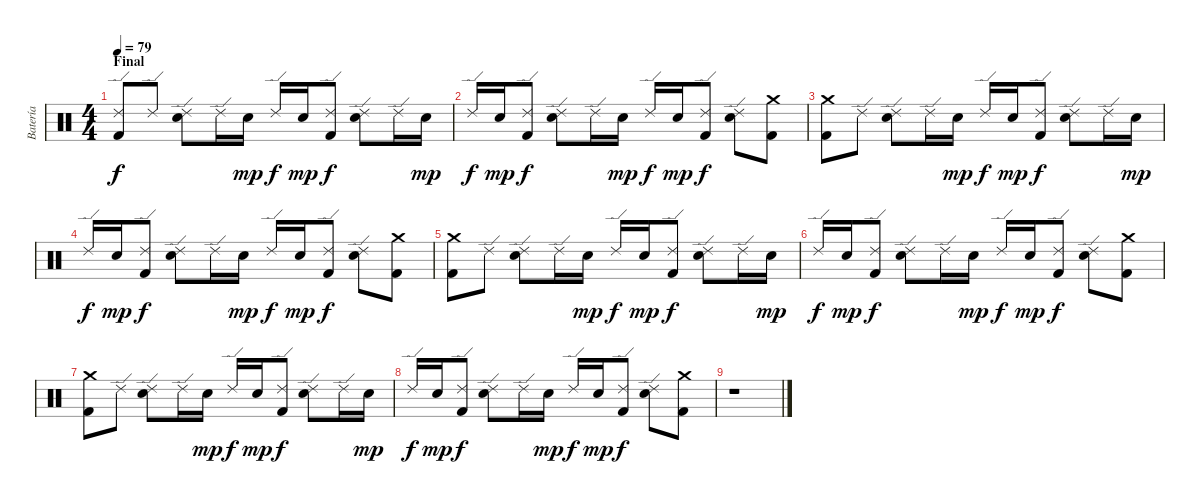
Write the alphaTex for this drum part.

\track ("Batería" "Batería") {instrument percussion}
\staff {score}
\articulation defaults
\ts (4 4)
\section ("" "Final")
\tempo 79
\clef neutral
\ks c
("Ride (edge) 2" "Kick (hit) 2").8{dy f} "Ride (edge) 2".8 ("Ride (edge) 2" "Snare (hit) 2").8 "Ride (edge) 2".16 "Snare (hit) 2".16{dy mp} "Ride (edge) 2".16{dy f} "Snare (hit) 2".16{dy mp} ("Ride (edge) 2" "Kick (hit) 2").8{dy f} ("Ride (edge) 2" "Snare (hit) 2").8 "Ride (edge) 2".16 "Snare (hit) 2".16{dy mp} |
"Ride (edge) 2".16{dy f} "Snare (hit) 2".16{dy mp} ("Ride (edge) 2" "Kick (hit) 2").8{dy f} ("Ride (edge) 2" "Snare (hit) 2").8 "Ride (edge) 2".16 "Snare (hit) 2".16{dy mp} "Ride (edge) 2".16{dy f} "Snare (hit) 2".16{dy mp} ("Ride (edge) 2" "Kick (hit) 2").8{dy f} ("Ride (edge) 2" "Snare (hit) 2").8 ("Crash medium (hit)" "Kick (hit) 2").8 |
("Crash medium (hit)" "Kick (hit) 2").8 "Ride (edge) 2".8 ("Ride (edge) 2" "Snare (hit) 2").8 "Ride (edge) 2".16 "Snare (hit) 2".16{dy mp} "Ride (edge) 2".16{dy f} "Snare (hit) 2".16{dy mp} ("Ride (edge) 2" "Kick (hit) 2").8{dy f} ("Ride (edge) 2" "Snare (hit) 2").8 "Ride (edge) 2".16 "Snare (hit) 2".16{dy mp} |
"Ride (edge) 2".16{dy f} "Snare (hit) 2".16{dy mp} ("Ride (edge) 2" "Kick (hit) 2").8{dy f} ("Ride (edge) 2" "Snare (hit) 2").8 "Ride (edge) 2".16 "Snare (hit) 2".16{dy mp} "Ride (edge) 2".16{dy f} "Snare (hit) 2".16{dy mp} ("Ride (edge) 2" "Kick (hit) 2").8{dy f} ("Ride (edge) 2" "Snare (hit) 2").8 ("Crash medium (hit)" "Kick (hit) 2").8 |
("Crash medium (hit)" "Kick (hit) 2").8 "Ride (edge) 2".8 ("Ride (edge) 2" "Snare (hit) 2").8 "Ride (edge) 2".16 "Snare (hit) 2".16{dy mp} "Ride (edge) 2".16{dy f} "Snare (hit) 2".16{dy mp} ("Ride (edge) 2" "Kick (hit) 2").8{dy f} ("Ride (edge) 2" "Snare (hit) 2").8 "Ride (edge) 2".16 "Snare (hit) 2".16{dy mp} |
"Ride (edge) 2".16{dy f} "Snare (hit) 2".16{dy mp} ("Ride (edge) 2" "Kick (hit) 2").8{dy f} ("Ride (edge) 2" "Snare (hit) 2").8 "Ride (edge) 2".16 "Snare (hit) 2".16{dy mp} "Ride (edge) 2".16{dy f} "Snare (hit) 2".16{dy mp} ("Ride (edge) 2" "Kick (hit) 2").8{dy f} ("Ride (edge) 2" "Snare (hit) 2").8 ("Crash medium (hit)" "Kick (hit) 2").8 |
("Crash medium (hit)" "Kick (hit) 2").8 "Ride (edge) 2".8 ("Ride (edge) 2" "Snare (hit) 2").8 "Ride (edge) 2".16 "Snare (hit) 2".16{dy mp} "Ride (edge) 2".16{dy f} "Snare (hit) 2".16{dy mp} ("Ride (edge) 2" "Kick (hit) 2").8{dy f} ("Ride (edge) 2" "Snare (hit) 2").8 "Ride (edge) 2".16 "Snare (hit) 2".16{dy mp} |
"Ride (edge) 2".16{dy f} "Snare (hit) 2".16{dy mp} ("Ride (edge) 2" "Kick (hit) 2").8{dy f} ("Ride (edge) 2" "Snare (hit) 2").8 "Ride (edge) 2".16 "Snare (hit) 2".16{dy mp} "Ride (edge) 2".16{dy f} "Snare (hit) 2".16{dy mp} ("Ride (edge) 2" "Kick (hit) 2").8{dy f} ("Ride (edge) 2" "Snare (hit) 2").8 ("Crash medium (hit)" "Kick (hit) 2").8 |
r.1
